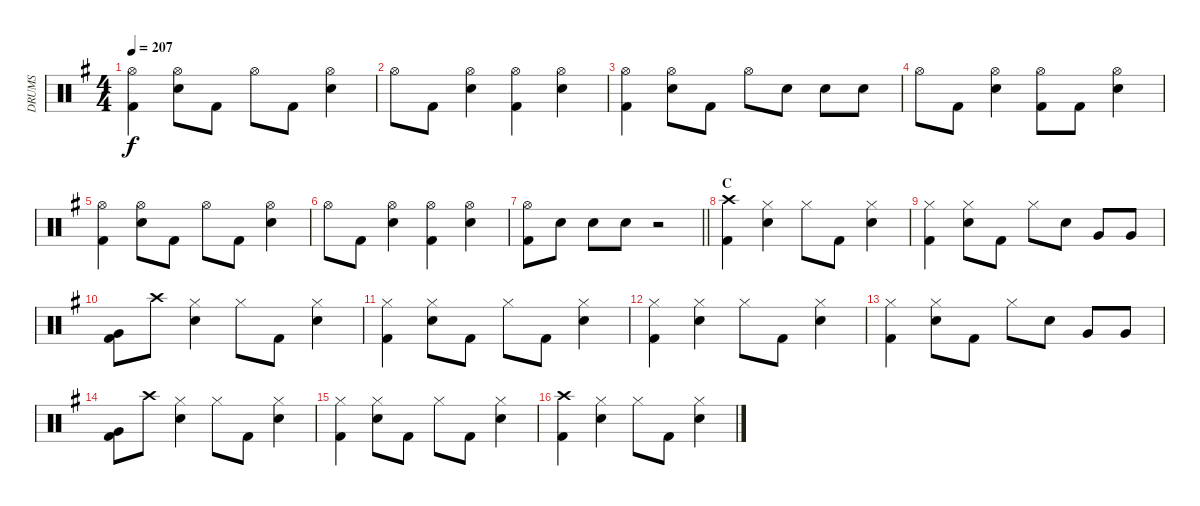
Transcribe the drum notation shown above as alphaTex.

\track ("DRUMS" "DRUMS") {instrument percussion}
\staff {score}
\articulation defaults
\ts (4 4)
\tempo 207
\clef neutral
\ks eminor
("Hi-Hat (open)" "Kick (hit) 2").4{dy f} ("Hi-Hat (open)" "Snare (hit) 2").8 "Kick (hit) 2".8 "Hi-Hat (open)".8 "Kick (hit) 2".8 ("Hi-Hat (open)" "Snare (hit) 2").4 |
"Hi-Hat (open)".8 "Kick (hit) 2".8 ("Hi-Hat (open)" "Snare (hit) 2").4 ("Hi-Hat (open)" "Kick (hit) 2").4 ("Hi-Hat (open)" "Snare (hit) 2").4 |
("Hi-Hat (open)" "Kick (hit) 2").4 ("Hi-Hat (open)" "Snare (hit) 2").8 "Kick (hit) 2".8 "Hi-Hat (open)".8 "Snare (hit) 2".8 "Snare (hit) 2".8 "Snare (hit) 2".8 |
"Hi-Hat (open)".8 "Kick (hit) 2".8 ("Hi-Hat (open)" "Snare (hit) 2").4 ("Hi-Hat (open)" "Kick (hit) 2").8 "Kick (hit) 2".8 ("Hi-Hat (open)" "Snare (hit) 2").4 |
("Hi-Hat (open)" "Kick (hit) 2").4 ("Hi-Hat (open)" "Snare (hit) 2").8 "Kick (hit) 2".8 "Hi-Hat (open)".8 "Kick (hit) 2".8 ("Hi-Hat (open)" "Snare (hit) 2").4 |
"Hi-Hat (open)".8 "Kick (hit) 2".8 ("Hi-Hat (open)" "Snare (hit) 2").4 ("Hi-Hat (open)" "Kick (hit) 2").4 ("Hi-Hat (open)" "Snare (hit) 2").4 |
\barLineRight lightlight
("Hi-Hat (open)" "Kick (hit) 2").8 "Snare (hit) 2".8 "Snare (hit) 2".8 "Snare (hit) 2".8 r.2 |
\section ("" "C")
("Crash high (hit)" "Kick (hit) 2").4 ("Hi-Hat (closed)" "Snare (hit) 2").4 "Hi-Hat (closed)".8 "Kick (hit) 2".8 ("Hi-Hat (closed)" "Snare (hit) 2").4 |
("Hi-Hat (closed)" "Kick (hit) 2").4 ("Hi-Hat (closed)" "Snare (hit) 2").8 "Kick (hit) 2".8 "Hi-Hat (closed)".8 "Snare (hit) 2".8 "Very Low Tom (hit)".8 "Very Low Tom (hit)".8 |
("Very Low Tom (hit)" "Kick (hit) 2").8 "Crash high (hit)".8 ("Hi-Hat (closed)" "Snare (hit) 2").4 "Hi-Hat (closed)".8 "Kick (hit) 2".8 ("Hi-Hat (closed)" "Snare (hit) 2").4 |
("Hi-Hat (closed)" "Kick (hit) 2").4 ("Hi-Hat (closed)" "Snare (hit) 2").8 "Kick (hit) 2".8 "Hi-Hat (closed)".8 "Kick (hit) 2".8 ("Hi-Hat (closed)" "Snare (hit) 2").4 |
("Hi-Hat (closed)" "Kick (hit) 2").4 ("Hi-Hat (closed)" "Snare (hit) 2").4 "Hi-Hat (closed)".8 "Kick (hit) 2".8 ("Hi-Hat (closed)" "Snare (hit) 2").4 |
("Hi-Hat (closed)" "Kick (hit) 2").4 ("Hi-Hat (closed)" "Snare (hit) 2").8 "Kick (hit) 2".8 "Hi-Hat (closed)".8 "Snare (hit) 2".8 "Very Low Tom (hit)".8 "Very Low Tom (hit)".8 |
("Very Low Tom (hit)" "Kick (hit) 2").8 "Crash high (hit)".8 ("Hi-Hat (closed)" "Snare (hit) 2").4 "Hi-Hat (closed)".8 "Kick (hit) 2".8 ("Hi-Hat (closed)" "Snare (hit) 2").4 |
("Hi-Hat (closed)" "Kick (hit) 2").4 ("Hi-Hat (closed)" "Snare (hit) 2").8 "Kick (hit) 2".8 "Hi-Hat (closed)".8 "Kick (hit) 2".8 ("Hi-Hat (closed)" "Snare (hit) 2").4 |
("Crash high (hit)" "Kick (hit) 2").4 ("Hi-Hat (closed)" "Snare (hit) 2").4 "Hi-Hat (closed)".8 "Kick (hit) 2".8 ("Hi-Hat (closed)" "Snare (hit) 2").4
